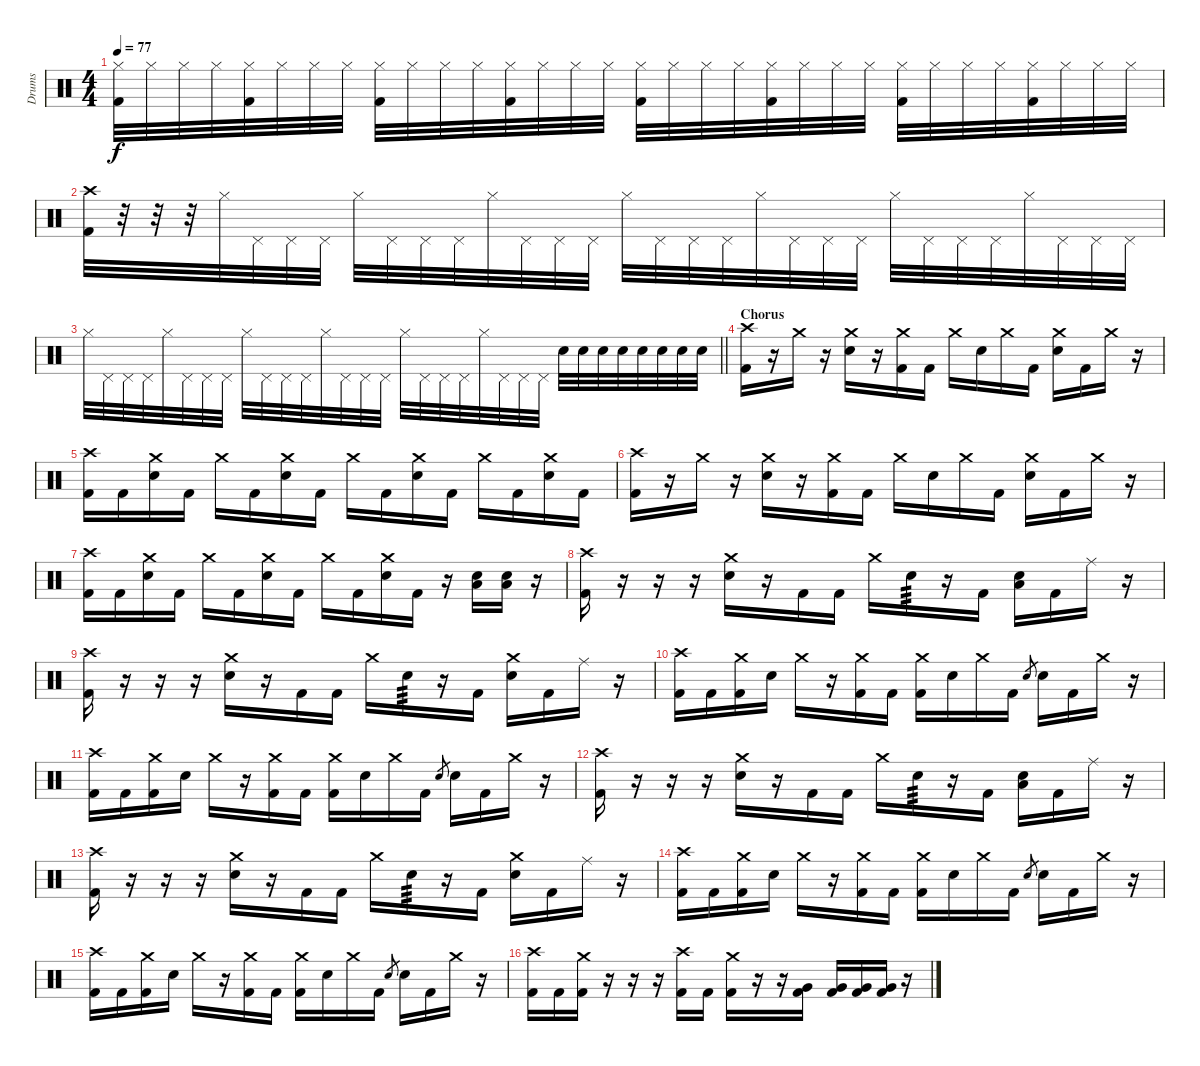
\track ("Drums" "Drums") {instrument percussion}
\staff {score}
\articulation defaults
\ts (4 4)
\tempo 77
\clef neutral
\ks c
("Hi-Hat (closed)" "Kick (hit) 2").32{dy f} "Hi-Hat (closed)".32 "Hi-Hat (closed)".32 "Hi-Hat (closed)".32 ("Hi-Hat (closed)" "Kick (hit) 2").32 "Hi-Hat (closed)".32 "Hi-Hat (closed)".32 "Hi-Hat (closed)".32 ("Hi-Hat (closed)" "Kick (hit) 2").32 "Hi-Hat (closed)".32 "Hi-Hat (closed)".32 "Hi-Hat (closed)".32 ("Hi-Hat (closed)" "Kick (hit) 2").32 "Hi-Hat (closed)".32 "Hi-Hat (closed)".32 "Hi-Hat (closed)".32 ("Hi-Hat (closed)" "Kick (hit) 2").32 "Hi-Hat (closed)".32 "Hi-Hat (closed)".32 "Hi-Hat (closed)".32 ("Hi-Hat (closed)" "Kick (hit) 2").32 "Hi-Hat (closed)".32 "Hi-Hat (closed)".32 "Hi-Hat (closed)".32 ("Hi-Hat (closed)" "Kick (hit) 2").32 "Hi-Hat (closed)".32 "Hi-Hat (closed)".32 "Hi-Hat (closed)".32 ("Hi-Hat (closed)" "Kick (hit) 2").32 "Hi-Hat (closed)".32 "Hi-Hat (closed)".32 "Hi-Hat (closed)".32 |
("Crash high (hit)" "Kick (hit) 2").32 r.32 r.32 r.32 "Hi-Hat (closed)".32 "Pedal Hi-Hat (hit)".32 "Pedal Hi-Hat (hit)".32 "Pedal Hi-Hat (hit)".32 "Hi-Hat (closed)".32 "Pedal Hi-Hat (hit)".32 "Pedal Hi-Hat (hit)".32 "Pedal Hi-Hat (hit)".32 "Hi-Hat (closed)".32 "Pedal Hi-Hat (hit)".32 "Pedal Hi-Hat (hit)".32 "Pedal Hi-Hat (hit)".32 "Hi-Hat (closed)".32 "Pedal Hi-Hat (hit)".32 "Pedal Hi-Hat (hit)".32 "Pedal Hi-Hat (hit)".32 "Hi-Hat (closed)".32 "Pedal Hi-Hat (hit)".32 "Pedal Hi-Hat (hit)".32 "Pedal Hi-Hat (hit)".32 "Hi-Hat (closed)".32 "Pedal Hi-Hat (hit)".32 "Pedal Hi-Hat (hit)".32 "Pedal Hi-Hat (hit)".32 "Hi-Hat (closed)".32 "Pedal Hi-Hat (hit)".32 "Pedal Hi-Hat (hit)".32 "Pedal Hi-Hat (hit)".32 |
\barLineRight lightlight "Hi-Hat (closed)".32 "Pedal Hi-Hat (hit)".32 "Pedal Hi-Hat (hit)".32 "Pedal Hi-Hat (hit)".32 "Hi-Hat (closed)".32 "Pedal Hi-Hat (hit)".32 "Pedal Hi-Hat (hit)".32 "Pedal Hi-Hat (hit)".32 "Hi-Hat (closed)".32 "Pedal Hi-Hat (hit)".32 "Pedal Hi-Hat (hit)".32 "Pedal Hi-Hat (hit)".32 "Hi-Hat (closed)".32 "Pedal Hi-Hat (hit)".32 "Pedal Hi-Hat (hit)".32 "Pedal Hi-Hat (hit)".32 "Hi-Hat (closed)".32 "Pedal Hi-Hat (hit)".32 "Pedal Hi-Hat (hit)".32 "Pedal Hi-Hat (hit)".32 "Hi-Hat (closed)".32 "Pedal Hi-Hat (hit)".32 "Pedal Hi-Hat (hit)".32 "Pedal Hi-Hat (hit)".32 "Snare (hit) 2".32 "Snare (hit) 2".32 "Snare (hit) 2".32 "Snare (hit) 2".32 "Snare (hit) 2".32 "Snare (hit) 2".32 "Snare (hit) 2".32 "Snare (hit) 2".32
|
\section ("" "Chorus")
("Crash high (hit)" "Kick (hit) 2").16 r.16 "Crash medium (hit)".16 r.16 ("Crash medium (hit)" "Snare (hit) 2").16 r.16 ("Crash medium (hit)" "Kick (hit) 2").16 "Kick (hit) 2".16 "Crash medium (hit)".16 "Snare (hit) 2".16 "Crash medium (hit)".16 "Kick (hit) 2".16 ("Crash medium (hit)" "Snare (hit) 2").16 "Kick (hit) 2".16 "Crash medium (hit)".16 r.16 |
("Crash high (hit)" "Kick (hit) 2").16 "Kick (hit) 2".16 ("Crash medium (hit)" "Snare (hit) 2").16 "Kick (hit) 2".16 "Crash medium (hit)".16 "Kick (hit) 2".16 ("Crash medium (hit)" "Snare (hit) 2").16 "Kick (hit) 2".16 "Crash medium (hit)".16 "Kick (hit) 2".16 ("Crash medium (hit)" "Snare (hit) 2").16 "Kick (hit) 2".16 "Crash medium (hit)".16 "Kick (hit) 2".16 ("Crash medium (hit)" "Snare (hit) 2").16 "Kick (hit) 2".16 |
("Crash high (hit)" "Kick (hit) 2").16 r.16 "Crash medium (hit)".16 r.16 ("Crash medium (hit)" "Snare (hit) 2").16 r.16 ("Crash medium (hit)" "Kick (hit) 2").16 "Kick (hit) 2".16 "Crash medium (hit)".16 "Snare (hit) 2".16 "Crash medium (hit)".16 "Kick (hit) 2".16 ("Crash medium (hit)" "Snare (hit) 2").16 "Kick (hit) 2".16 "Crash medium (hit)".16 r.16 |
("Crash high (hit)" "Kick (hit) 2").16 "Kick (hit) 2".16 ("Crash medium (hit)" "Snare (hit) 2").16 "Kick (hit) 2".16 "Crash medium (hit)".16 "Kick (hit) 2".16 ("Crash medium (hit)" "Snare (hit) 2").16 "Kick (hit) 2".16 "Crash medium (hit)".16 "Kick (hit) 2".16 ("Crash medium (hit)" "Snare (hit) 2").16 "Kick (hit) 2".16 r.16 ("Low Tom (hit)" "Snare (hit) 2").16 ("Low Tom (hit)" "Snare (hit) 2").16 r.16 |
("Crash high (hit)" "Kick (hit) 2").16 r.16 r.16 r.16 ("Crash medium (hit)" "Snare (hit) 2").16 r.16 "Kick (hit) 2".16 "Kick (hit) 2".16 "Crash medium (hit)".16 "Snare (hit) 2".16{tp 3} r.16 "Kick (hit) 2".16 ("Low Floor Tom (hit)" "Snare (hit) 2").16 "Kick (hit) 2".16 "Ride (middle)".16 r.16 |
("Crash high (hit)" "Kick (hit) 2").16 r.16 r.16 r.16 ("Crash medium (hit)" "Snare (hit) 2").16 r.16 "Kick (hit) 2".16 "Kick (hit) 2".16 "Crash medium (hit)".16 "Snare (hit) 2".16{tp 3} r.16 "Kick (hit) 2".16 ("Crash medium (hit)" "Snare (hit) 2").16 "Kick (hit) 2".16 "Ride (middle)".16 r.16 |
("Crash high (hit)" "Kick (hit) 2").16 "Kick (hit) 2".16 ("Crash medium (hit)" "Kick (hit) 2").16 "Snare (hit) 2".16 "Crash medium (hit)".16 r.16 ("Crash medium (hit)" "Kick (hit) 2").16 "Kick (hit) 2".16 ("Crash medium (hit)" "Kick (hit) 2").16 "Snare (hit) 2".16 "Crash medium (hit)".16 "Kick (hit) 2".16 "Snare (hit) 2".8{gr} "Snare (hit) 2".16 "Kick (hit) 2".16 "Crash medium (hit)".16 r.16 |
("Crash high (hit)" "Kick (hit) 2").16 "Kick (hit) 2".16 ("Crash medium (hit)" "Kick (hit) 2").16 "Snare (hit) 2".16 "Crash medium (hit)".16 r.16 ("Crash medium (hit)" "Kick (hit) 2").16 "Kick (hit) 2".16 ("Crash medium (hit)" "Kick (hit) 2").16 "Snare (hit) 2".16 "Crash medium (hit)".16 "Kick (hit) 2".16 "Snare (hit) 2".8{gr} "Snare (hit) 2".16 "Kick (hit) 2".16 "Crash medium (hit)".16 r.16 |
("Crash high (hit)" "Kick (hit) 2").16 r.16 r.16 r.16 ("Crash medium (hit)" "Snare (hit) 2").16 r.16 "Kick (hit) 2".16 "Kick (hit) 2".16 "Crash medium (hit)".16 "Snare (hit) 2".16{tp 3} r.16 "Kick (hit) 2".16 ("Low Floor Tom (hit)" "Snare (hit) 2").16 "Kick (hit) 2".16 "Ride (middle)".16 r.16 |
("Crash high (hit)" "Kick (hit) 2").16 r.16 r.16 r.16 ("Crash medium (hit)" "Snare (hit) 2").16 r.16 "Kick (hit) 2".16 "Kick (hit) 2".16 "Crash medium (hit)".16 "Snare (hit) 2".16{tp 3} r.16 "Kick (hit) 2".16 ("Crash medium (hit)" "Snare (hit) 2").16 "Kick (hit) 2".16 "Ride (middle)".16 r.16 |
("Crash high (hit)" "Kick (hit) 2").16 "Kick (hit) 2".16 ("Crash medium (hit)" "Kick (hit) 2").16 "Snare (hit) 2".16 "Crash medium (hit)".16 r.16 ("Crash medium (hit)" "Kick (hit) 2").16 "Kick (hit) 2".16 ("Crash medium (hit)" "Kick (hit) 2").16 "Snare (hit) 2".16 "Crash medium (hit)".16 "Kick (hit) 2".16 "Snare (hit) 2".8{gr} "Snare (hit) 2".16 "Kick (hit) 2".16 "Crash medium (hit)".16 r.16 |
("Crash high (hit)" "Kick (hit) 2").16 "Kick (hit) 2".16 ("Crash medium (hit)" "Kick (hit) 2").16 "Snare (hit) 2".16 "Crash medium (hit)".16 r.16 ("Crash medium (hit)" "Kick (hit) 2").16 "Kick (hit) 2".16 ("Crash medium (hit)" "Kick (hit) 2").16 "Snare (hit) 2".16 "Crash medium (hit)".16 "Kick (hit) 2".16 "Snare (hit) 2".8{gr} "Snare (hit) 2".16 "Kick (hit) 2".16 "Crash medium (hit)".16 r.16 |
("Crash high (hit)" "Kick (hit) 2").16 "Kick (hit) 2".16 ("Crash medium (hit)" "Kick (hit) 2").16 r.16 r.16 r.16 ("Crash high (hit)" "Kick (hit) 2").16 "Kick (hit) 2".16 ("Crash medium (hit)" "Kick (hit) 2").16 r.16 r.16 ("Very Low Tom (hit)" "Kick (hit) 2").16 ("Very Low Tom (hit)" "Kick (hit) 2").16 ("Very Low Tom (hit)" "Kick (hit) 2").16 ("Very Low Tom (hit)" "Kick (hit) 2").16 r.16
